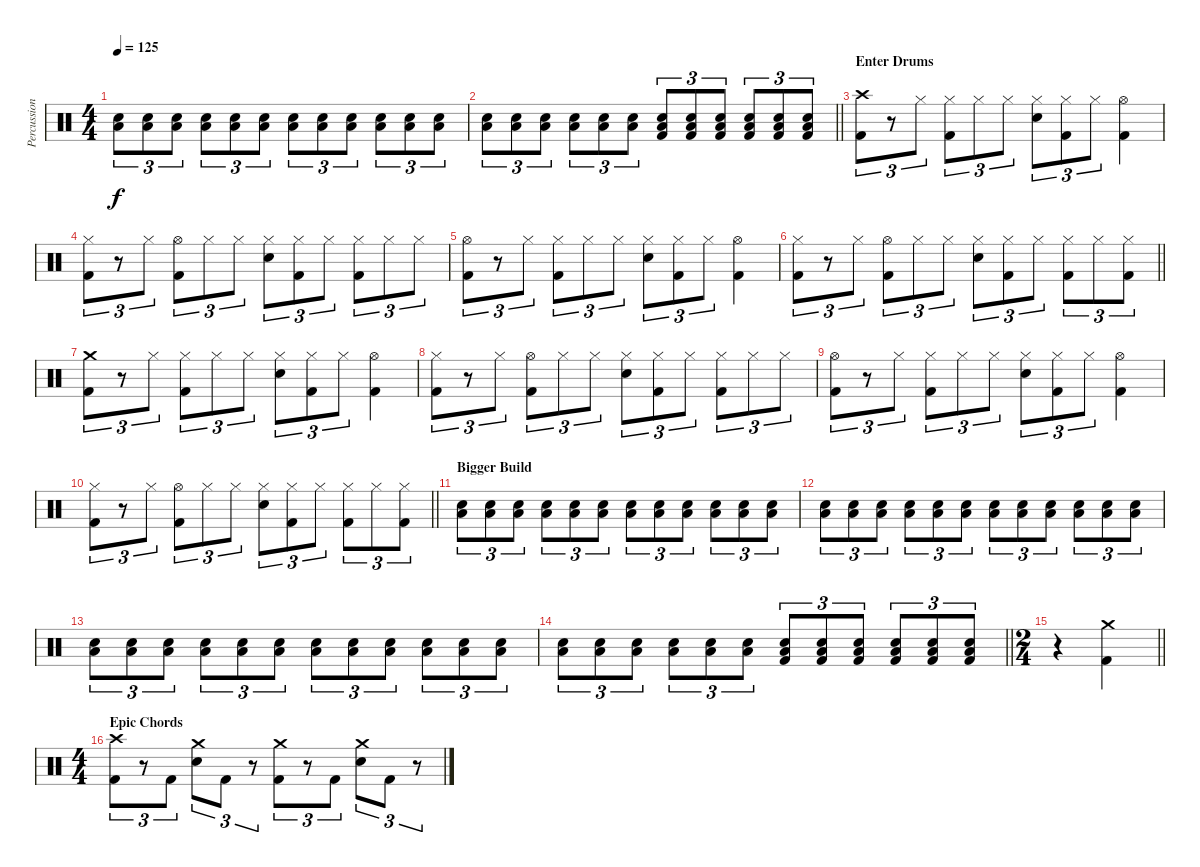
\track ("Percussion" "Percussion") {instrument percussion}
\staff {score}
\articulation defaults
\ts (4 4)
\tempo 125
\clef neutral
\ks c
("Snare (hit) 2" "Low Tom (hit)").8{tu (3 2) dy f} ("Snare (hit) 2" "Low Tom (hit)").8{tu (3 2)} ("Snare (hit) 2" "Low Tom (hit)").8{tu (3 2)} ("Snare (hit) 2" "Low Tom (hit)").8{tu (3 2)} ("Snare (hit) 2" "Low Tom (hit)").8{tu (3 2)} ("Snare (hit) 2" "Low Tom (hit)").8{tu (3 2)} ("Snare (hit) 2" "Low Tom (hit)").8{tu (3 2)} ("Snare (hit) 2" "Low Tom (hit)").8{tu (3 2)} ("Snare (hit) 2" "Low Tom (hit)").8{tu (3 2)} ("Snare (hit) 2" "Low Tom (hit)").8{tu (3 2)} ("Snare (hit) 2" "Low Tom (hit)").8{tu (3 2)} ("Snare (hit) 2" "Low Tom (hit)").8{tu (3 2)} |
\barLineRight lightlight
("Snare (hit) 2" "Low Tom (hit)").8{tu (3 2)} ("Snare (hit) 2" "Low Tom (hit)").8{tu (3 2)} ("Snare (hit) 2" "Low Tom (hit)").8{tu (3 2)} ("Snare (hit) 2" "Low Tom (hit)").8{tu (3 2)} ("Snare (hit) 2" "Low Tom (hit)").8{tu (3 2)} ("Snare (hit) 2" "Low Tom (hit)").8{tu (3 2)} ("Snare (hit) 2" "Low Tom (hit)" "Kick (hit) 2").8{tu (3 2)} ("Snare (hit) 2" "Low Tom (hit)" "Kick (hit) 2").8{tu (3 2)} ("Snare (hit) 2" "Low Tom (hit)" "Kick (hit) 2").8{tu (3 2)} ("Snare (hit) 2" "Low Tom (hit)" "Kick (hit) 2").8{tu (3 2)} ("Snare (hit) 2" "Low Tom (hit)" "Kick (hit) 2").8{tu (3 2)} ("Snare (hit) 2" "Low Tom (hit)" "Kick (hit) 2").8{tu (3 2)} |
\section ("" "Enter Drums")
("Crash high (hit)" "Kick (hit) 2").8{tu (3 2)} r.8{tu (3 2)} "Hi-Hat (closed)".8{tu (3 2)} ("Hi-Hat (closed)" "Kick (hit) 2").8{tu (3 2)} "Hi-Hat (closed)".8{tu (3 2)} "Hi-Hat (closed)".8{tu (3 2)} ("Hi-Hat (closed)" "Snare (hit) 2").8{tu (3 2)} ("Hi-Hat (closed)" "Kick (hit) 2").8{tu (3 2)} "Hi-Hat (closed)".8{tu (3 2)} ("Hi-Hat (open)" "Kick (hit) 2").4 |
("Hi-Hat (closed)" "Kick (hit) 2").8{tu (3 2)} r.8{tu (3 2)} "Hi-Hat (closed)".8{tu (3 2)} ("Hi-Hat (open)" "Kick (hit) 2").8{tu (3 2)} "Hi-Hat (closed)".8{tu (3 2)} "Hi-Hat (closed)".8{tu (3 2)} ("Hi-Hat (closed)" "Snare (hit) 2").8{tu (3 2)} ("Hi-Hat (closed)" "Kick (hit) 2").8{tu (3 2)} "Hi-Hat (closed)".8{tu (3 2)} ("Hi-Hat (closed)" "Kick (hit) 2").8{tu (3 2)} "Hi-Hat (closed)".8{tu (3 2)} "Hi-Hat (closed)".8{tu (3 2)} |
("Hi-Hat (open)" "Kick (hit) 2").8{tu (3 2)} r.8{tu (3 2)} "Hi-Hat (closed)".8{tu (3 2)} ("Hi-Hat (closed)" "Kick (hit) 2").8{tu (3 2)} "Hi-Hat (closed)".8{tu (3 2)} "Hi-Hat (closed)".8{tu (3 2)} ("Hi-Hat (closed)" "Snare (hit) 2").8{tu (3 2)} ("Hi-Hat (closed)" "Kick (hit) 2").8{tu (3 2)} "Hi-Hat (closed)".8{tu (3 2)} ("Hi-Hat (open)" "Kick (hit) 2").4 |
\barLineRight lightlight
("Hi-Hat (closed)" "Kick (hit) 2").8{tu (3 2)} r.8{tu (3 2)} "Hi-Hat (closed)".8{tu (3 2)} ("Hi-Hat (open)" "Kick (hit) 2").8{tu (3 2)} "Hi-Hat (closed)".8{tu (3 2)} "Hi-Hat (closed)".8{tu (3 2)} ("Hi-Hat (closed)" "Snare (hit) 2").8{tu (3 2)} ("Hi-Hat (closed)" "Kick (hit) 2").8{tu (3 2)} "Hi-Hat (closed)".8{tu (3 2)} ("Hi-Hat (closed)" "Kick (hit) 2").8{tu (3 2)} "Hi-Hat (closed)".8{tu (3 2)} ("Hi-Hat (closed)" "Kick (hit) 2").8{tu (3 2)} |
("Crash medium (hit)" "Kick (hit) 2").8{tu (3 2)} r.8{tu (3 2)} "Hi-Hat (closed)".8{tu (3 2)} ("Hi-Hat (closed)" "Kick (hit) 2").8{tu (3 2)} "Hi-Hat (closed)".8{tu (3 2)} "Hi-Hat (closed)".8{tu (3 2)} ("Hi-Hat (closed)" "Snare (hit) 2").8{tu (3 2)} ("Hi-Hat (closed)" "Kick (hit) 2").8{tu (3 2)} "Hi-Hat (closed)".8{tu (3 2)} ("Hi-Hat (open)" "Kick (hit) 2").4 |
("Hi-Hat (closed)" "Kick (hit) 2").8{tu (3 2)} r.8{tu (3 2)} "Hi-Hat (closed)".8{tu (3 2)} ("Hi-Hat (open)" "Kick (hit) 2").8{tu (3 2)} "Hi-Hat (closed)".8{tu (3 2)} "Hi-Hat (closed)".8{tu (3 2)} ("Hi-Hat (closed)" "Snare (hit) 2").8{tu (3 2)} ("Hi-Hat (closed)" "Kick (hit) 2").8{tu (3 2)} "Hi-Hat (closed)".8{tu (3 2)} ("Hi-Hat (closed)" "Kick (hit) 2").8{tu (3 2)} "Hi-Hat (closed)".8{tu (3 2)} "Hi-Hat (closed)".8{tu (3 2)} |
("Hi-Hat (open)" "Kick (hit) 2").8{tu (3 2)} r.8{tu (3 2)} "Hi-Hat (closed)".8{tu (3 2)} ("Hi-Hat (closed)" "Kick (hit) 2").8{tu (3 2)} "Hi-Hat (closed)".8{tu (3 2)} "Hi-Hat (closed)".8{tu (3 2)} ("Hi-Hat (closed)" "Snare (hit) 2").8{tu (3 2)} ("Hi-Hat (closed)" "Kick (hit) 2").8{tu (3 2)} "Hi-Hat (closed)".8{tu (3 2)} ("Hi-Hat (open)" "Kick (hit) 2").4 |
\barLineRight lightlight
("Hi-Hat (closed)" "Kick (hit) 2").8{tu (3 2)} r.8{tu (3 2)} "Hi-Hat (closed)".8{tu (3 2)} ("Hi-Hat (open)" "Kick (hit) 2").8{tu (3 2)} "Hi-Hat (closed)".8{tu (3 2)} "Hi-Hat (closed)".8{tu (3 2)} ("Hi-Hat (closed)" "Snare (hit) 2").8{tu (3 2)} ("Hi-Hat (closed)" "Kick (hit) 2").8{tu (3 2)} "Hi-Hat (closed)".8{tu (3 2)} ("Hi-Hat (closed)" "Kick (hit) 2").8{tu (3 2)} "Hi-Hat (closed)".8{tu (3 2)} ("Hi-Hat (closed)" "Kick (hit) 2").8{tu (3 2) volume 5} |
\section ("" "Bigger Build")
("Snare (hit) 2" "Low Tom (hit)").8{tu (3 2) volume 13} ("Snare (hit) 2" "Low Tom (hit)").8{tu (3 2)} ("Snare (hit) 2" "Low Tom (hit)").8{tu (3 2)} ("Snare (hit) 2" "Low Tom (hit)").8{tu (3 2)} ("Snare (hit) 2" "Low Tom (hit)").8{tu (3 2)} ("Snare (hit) 2" "Low Tom (hit)").8{tu (3 2)} ("Snare (hit) 2" "Low Tom (hit)").8{tu (3 2)} ("Snare (hit) 2" "Low Tom (hit)").8{tu (3 2)} ("Snare (hit) 2" "Low Tom (hit)").8{tu (3 2)} ("Snare (hit) 2" "Low Tom (hit)").8{tu (3 2)} ("Snare (hit) 2" "Low Tom (hit)").8{tu (3 2)} ("Snare (hit) 2" "Low Tom (hit)").8{tu (3 2)} |
("Snare (hit) 2" "Low Tom (hit)").8{tu (3 2)} ("Snare (hit) 2" "Low Tom (hit)").8{tu (3 2)} ("Snare (hit) 2" "Low Tom (hit)").8{tu (3 2)} ("Snare (hit) 2" "Low Tom (hit)").8{tu (3 2)} ("Snare (hit) 2" "Low Tom (hit)").8{tu (3 2)} ("Snare (hit) 2" "Low Tom (hit)").8{tu (3 2)} ("Snare (hit) 2" "Low Tom (hit)").8{tu (3 2)} ("Snare (hit) 2" "Low Tom (hit)").8{tu (3 2)} ("Snare (hit) 2" "Low Tom (hit)").8{tu (3 2)} ("Snare (hit) 2" "Low Tom (hit)").8{tu (3 2)} ("Snare (hit) 2" "Low Tom (hit)").8{tu (3 2)} ("Snare (hit) 2" "Low Tom (hit)").8{tu (3 2)} |
("Snare (hit) 2" "Low Tom (hit)").8{tu (3 2)} ("Snare (hit) 2" "Low Tom (hit)").8{tu (3 2)} ("Snare (hit) 2" "Low Tom (hit)").8{tu (3 2)} ("Snare (hit) 2" "Low Tom (hit)").8{tu (3 2)} ("Snare (hit) 2" "Low Tom (hit)").8{tu (3 2)} ("Snare (hit) 2" "Low Tom (hit)").8{tu (3 2)} ("Snare (hit) 2" "Low Tom (hit)").8{tu (3 2)} ("Snare (hit) 2" "Low Tom (hit)").8{tu (3 2)} ("Snare (hit) 2" "Low Tom (hit)").8{tu (3 2)} ("Snare (hit) 2" "Low Tom (hit)").8{tu (3 2)} ("Snare (hit) 2" "Low Tom (hit)").8{tu (3 2)} ("Snare (hit) 2" "Low Tom (hit)").8{tu (3 2)} |
\barLineRight lightlight
("Snare (hit) 2" "Low Tom (hit)").8{tu (3 2)} ("Snare (hit) 2" "Low Tom (hit)").8{tu (3 2)} ("Snare (hit) 2" "Low Tom (hit)").8{tu (3 2)} ("Snare (hit) 2" "Low Tom (hit)").8{tu (3 2)} ("Snare (hit) 2" "Low Tom (hit)").8{tu (3 2)} ("Snare (hit) 2" "Low Tom (hit)").8{tu (3 2)} ("Snare (hit) 2" "Low Tom (hit)" "Kick (hit) 2").8{tu (3 2)} ("Snare (hit) 2" "Low Tom (hit)" "Kick (hit) 2").8{tu (3 2)} ("Snare (hit) 2" "Low Tom (hit)" "Kick (hit) 2").8{tu (3 2)} ("Snare (hit) 2" "Low Tom (hit)" "Kick (hit) 2").8{tu (3 2)} ("Snare (hit) 2" "Low Tom (hit)" "Kick (hit) 2").8{tu (3 2)} ("Snare (hit) 2" "Low Tom (hit)" "Kick (hit) 2").8{tu (3 2)} |
\ts (2 4)
\barLineRight lightlight
r.4{volume 0} ("Crash medium (hit)" "Kick (hit) 2").4{volume 13} |
\ts (4 4)
\section ("" "Epic Chords")
("Crash high (hit)" "Kick (hit) 2").8{tu (3 2)} r.8{tu (3 2)} "Kick (hit) 2".8{tu (3 2)} ("Crash medium (hit)" "Snare (hit) 2").8{tu (3 2)} "Kick (hit) 2".8{tu (3 2)} r.8{tu (3 2)} ("Crash medium (hit)" "Kick (hit) 2").8{tu (3 2)} r.8{tu (3 2)} "Kick (hit) 2".8{tu (3 2)} ("Crash medium (hit)" "Snare (hit) 2").8{tu (3 2)} "Kick (hit) 2".8{tu (3 2)} r.8{tu (3 2)}
